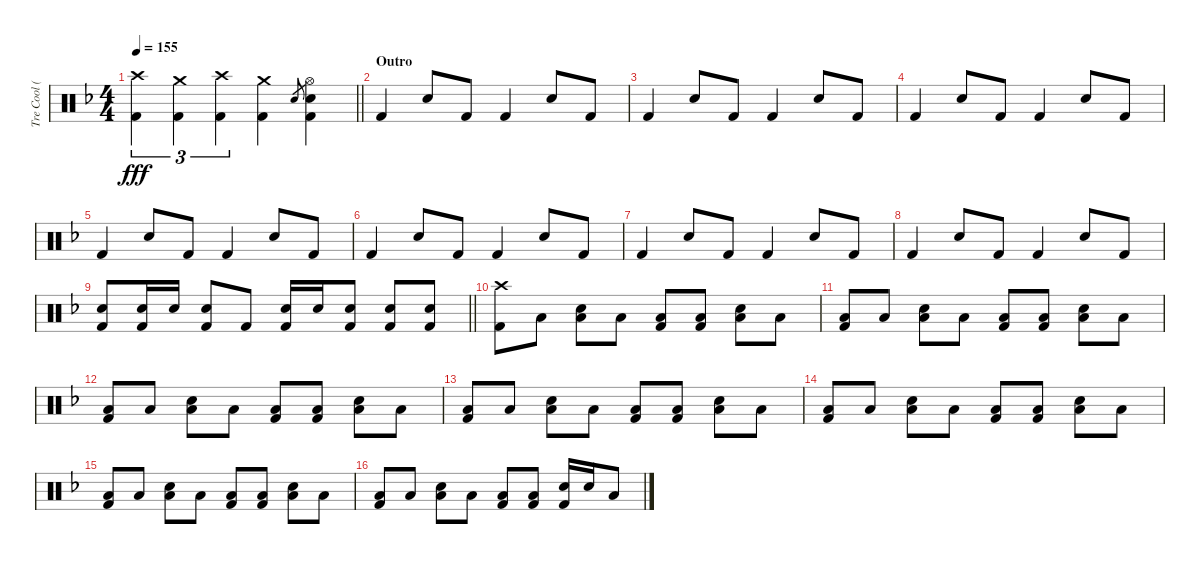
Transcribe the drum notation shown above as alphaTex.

\track ("Tre Cool (Drums)" "Tre Cool (") {instrument percussion}
\staff {score}
\articulation defaults
\ts (4 4)
\tempo 155
\clef neutral
\barLineRight lightlight
\ks f
("Crash high (hit)" "Kick (hit) 2").4{tu (3 2) dy fff} ("Crash medium (hit)" "Kick (hit) 2").4{tu (3 2)} ("Crash high (hit)" "Kick (hit) 2").4{tu (3 2)} ("Crash medium (hit)" "Kick (hit) 2").4 "Electric Snare (hit)".8{gr} ("Hi-Hat (open)" "Electric Snare (hit)" "Kick (hit) 2").4 |
\section ("" "Outro")
"Kick (hit) 2".4 "Electric Snare (hit)".8 "Kick (hit) 2".8 "Kick (hit) 2".4 "Electric Snare (hit)".8 "Kick (hit) 2".8 |
"Kick (hit) 2".4 "Electric Snare (hit)".8 "Kick (hit) 2".8 "Kick (hit) 2".4 "Electric Snare (hit)".8 "Kick (hit) 2".8 |
"Kick (hit) 2".4 "Electric Snare (hit)".8 "Kick (hit) 2".8 "Kick (hit) 2".4 "Electric Snare (hit)".8 "Kick (hit) 2".8 |
"Kick (hit) 2".4 "Electric Snare (hit)".8 "Kick (hit) 2".8 "Kick (hit) 2".4 "Electric Snare (hit)".8 "Kick (hit) 2".8 |
"Kick (hit) 2".4 "Electric Snare (hit)".8 "Kick (hit) 2".8 "Kick (hit) 2".4 "Electric Snare (hit)".8 "Kick (hit) 2".8 |
"Kick (hit) 2".4 "Electric Snare (hit)".8 "Kick (hit) 2".8 "Kick (hit) 2".4 "Electric Snare (hit)".8 "Kick (hit) 2".8 |
"Kick (hit) 2".4 "Electric Snare (hit)".8 "Kick (hit) 2".8 "Kick (hit) 2".4 "Electric Snare (hit)".8 "Kick (hit) 2".8 |
\barLineRight lightlight
("Electric Snare (hit)" "Kick (hit) 2").8 ("Electric Snare (hit)" "Kick (hit) 2").16 "Electric Snare (hit)".16 ("Electric Snare (hit)" "Kick (hit) 2").8 "Kick (hit) 2".8 ("Electric Snare (hit)" "Kick (hit) 2").16 "Electric Snare (hit)".16 ("Electric Snare (hit)" "Kick (hit) 2").8 ("Electric Snare (hit)" "Kick (hit) 2").8 ("Electric Snare (hit)" "Kick (hit) 2").8 |
("Crash high (hit)" "Kick (hit) 2").8 "Low Floor Tom (hit)".8 ("Low Floor Tom (hit)" "Electric Snare (hit)").8 "Low Floor Tom (hit)".8 ("Low Floor Tom (hit)" "Kick (hit) 2").8 ("Low Floor Tom (hit)" "Kick (hit) 2").8 ("Low Floor Tom (hit)" "Electric Snare (hit)").8 "Low Floor Tom (hit)".8 |
("Low Floor Tom (hit)" "Kick (hit) 2").8 "Low Floor Tom (hit)".8 ("Low Floor Tom (hit)" "Electric Snare (hit)").8 "Low Floor Tom (hit)".8 ("Low Floor Tom (hit)" "Kick (hit) 2").8 ("Low Floor Tom (hit)" "Kick (hit) 2").8 ("Low Floor Tom (hit)" "Electric Snare (hit)").8 "Low Floor Tom (hit)".8 |
("Low Floor Tom (hit)" "Kick (hit) 2").8 "Low Floor Tom (hit)".8 ("Low Floor Tom (hit)" "Electric Snare (hit)").8 "Low Floor Tom (hit)".8 ("Low Floor Tom (hit)" "Kick (hit) 2").8 ("Low Floor Tom (hit)" "Kick (hit) 2").8 ("Low Floor Tom (hit)" "Electric Snare (hit)").8 "Low Floor Tom (hit)".8 |
("Low Floor Tom (hit)" "Kick (hit) 2").8 "Low Floor Tom (hit)".8 ("Low Floor Tom (hit)" "Electric Snare (hit)").8 "Low Floor Tom (hit)".8 ("Low Floor Tom (hit)" "Kick (hit) 2").8 ("Low Floor Tom (hit)" "Kick (hit) 2").8 ("Low Floor Tom (hit)" "Electric Snare (hit)").8 "Low Floor Tom (hit)".8 |
("Low Floor Tom (hit)" "Kick (hit) 2").8 "Low Floor Tom (hit)".8 ("Low Floor Tom (hit)" "Electric Snare (hit)").8 "Low Floor Tom (hit)".8 ("Low Floor Tom (hit)" "Kick (hit) 2").8 ("Low Floor Tom (hit)" "Kick (hit) 2").8 ("Low Floor Tom (hit)" "Electric Snare (hit)").8 "Low Floor Tom (hit)".8 |
("Low Floor Tom (hit)" "Kick (hit) 2").8 "Low Floor Tom (hit)".8 ("Low Floor Tom (hit)" "Electric Snare (hit)").8 "Low Floor Tom (hit)".8 ("Low Floor Tom (hit)" "Kick (hit) 2").8 ("Low Floor Tom (hit)" "Kick (hit) 2").8 ("Low Floor Tom (hit)" "Electric Snare (hit)").8 "Low Floor Tom (hit)".8 |
("Low Floor Tom (hit)" "Kick (hit) 2").8 "Low Floor Tom (hit)".8 ("Low Floor Tom (hit)" "Electric Snare (hit)").8 "Low Floor Tom (hit)".8 ("Low Floor Tom (hit)" "Kick (hit) 2").8 ("Low Floor Tom (hit)" "Kick (hit) 2").8 ("Kick (hit) 2" "Electric Snare (hit)").16 "Electric Snare (hit)".16 "Low Floor Tom (hit)".8
